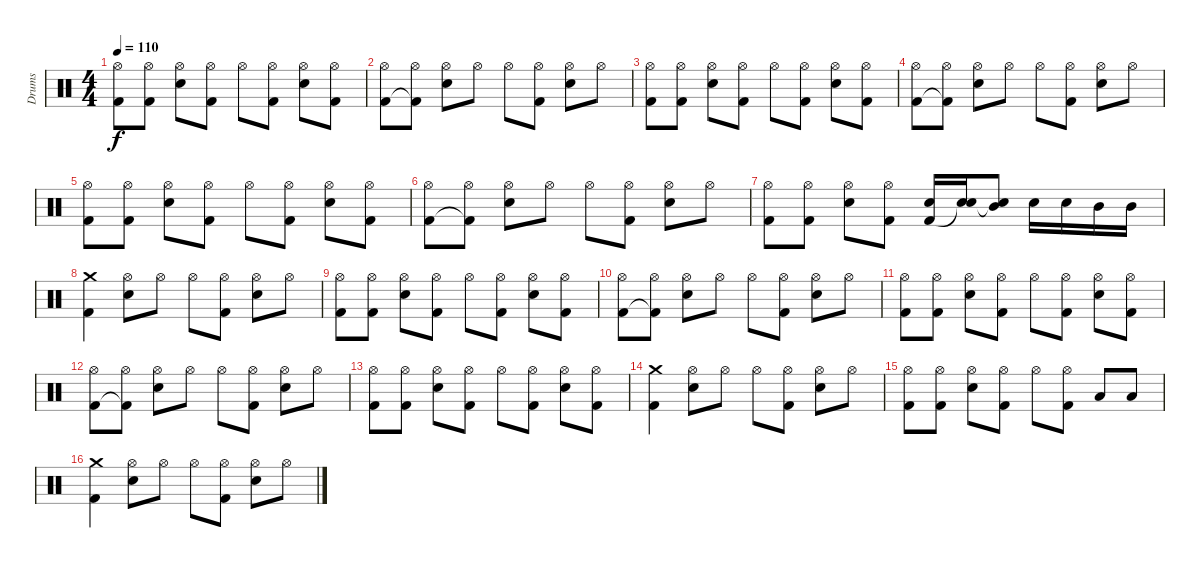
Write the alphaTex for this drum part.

\track ("Drums" "Drums") {instrument percussion}
\staff {score}
\articulation defaults
\ts (4 4)
\tempo 110
\clef neutral
\ks c
("Hi-Hat (open)" "Kick (hit) 2").8{dy f} ("Hi-Hat (open)" "Kick (hit) 2").8 ("Hi-Hat (open)" "Electric Snare (hit)").8 ("Hi-Hat (open)" "Kick (hit) 2").8 "Hi-Hat (open)".8 ("Hi-Hat (open)" "Kick (hit) 2").8 ("Hi-Hat (open)" "Electric Snare (hit)").8 ("Hi-Hat (open)" "Kick (hit) 2").8 |
("Hi-Hat (open)" "Kick (hit) 2").8 ("Hi-Hat (open)" "Kick (hit) 2"{t}).8 ("Hi-Hat (open)" "Electric Snare (hit)").8 "Hi-Hat (open)".8 "Hi-Hat (open)".8 ("Hi-Hat (open)" "Kick (hit) 2").8 ("Hi-Hat (open)" "Electric Snare (hit)").8 "Hi-Hat (open)".8 |
("Hi-Hat (open)" "Kick (hit) 2").8 ("Hi-Hat (open)" "Kick (hit) 2").8 ("Hi-Hat (open)" "Electric Snare (hit)").8 ("Hi-Hat (open)" "Kick (hit) 2").8 "Hi-Hat (open)".8 ("Hi-Hat (open)" "Kick (hit) 2").8 ("Hi-Hat (open)" "Electric Snare (hit)").8 ("Hi-Hat (open)" "Kick (hit) 2").8 |
("Hi-Hat (open)" "Kick (hit) 2").8 ("Hi-Hat (open)" "Kick (hit) 2"{t}).8 ("Hi-Hat (open)" "Electric Snare (hit)").8 "Hi-Hat (open)".8 "Hi-Hat (open)".8 ("Hi-Hat (open)" "Kick (hit) 2").8 ("Hi-Hat (open)" "Electric Snare (hit)").8 "Hi-Hat (open)".8 |
("Hi-Hat (open)" "Kick (hit) 2").8 ("Hi-Hat (open)" "Kick (hit) 2").8 ("Hi-Hat (open)" "Electric Snare (hit)").8 ("Hi-Hat (open)" "Kick (hit) 2").8 "Hi-Hat (open)".8 ("Hi-Hat (open)" "Kick (hit) 2").8 ("Hi-Hat (open)" "Electric Snare (hit)").8 ("Hi-Hat (open)" "Kick (hit) 2").8 |
("Hi-Hat (open)" "Kick (hit) 2").8 ("Hi-Hat (open)" "Kick (hit) 2"{t}).8 ("Hi-Hat (open)" "Electric Snare (hit)").8 "Hi-Hat (open)".8 "Hi-Hat (open)".8 ("Hi-Hat (open)" "Kick (hit) 2").8 ("Hi-Hat (open)" "Electric Snare (hit)").8 "Hi-Hat (open)".8 |
("Hi-Hat (open)" "Kick (hit) 2").8 ("Hi-Hat (open)" "Kick (hit) 2").8 ("Hi-Hat (open)" "Electric Snare (hit)").8 ("Hi-Hat (open)" "Kick (hit) 2").8 ("Electric Snare (hit)" "Kick (hit) 2").16 ("Electric Snare (hit)" "Snare (hit)"{t}).16 ("Mid Tom (hit)" "Snare (hit)"{t}).8 "Electric Snare (hit)".16 "Electric Snare (hit)".16 "Mid Tom (hit)".16 "Mid Tom (hit)".16 |
("Crash medium (hit)" "Kick (hit) 2").4 ("Hi-Hat (open)" "Electric Snare (hit)").8 "Hi-Hat (open)".8 "Hi-Hat (open)".8 ("Hi-Hat (open)" "Kick (hit) 2").8 ("Hi-Hat (open)" "Electric Snare (hit)").8 "Hi-Hat (open)".8 |
("Hi-Hat (open)" "Kick (hit) 2").8 ("Hi-Hat (open)" "Kick (hit) 2").8 ("Hi-Hat (open)" "Electric Snare (hit)").8 ("Hi-Hat (open)" "Kick (hit) 2").8 "Hi-Hat (open)".8 ("Hi-Hat (open)" "Kick (hit) 2").8 ("Hi-Hat (open)" "Electric Snare (hit)").8 ("Hi-Hat (open)" "Kick (hit) 2").8 |
("Hi-Hat (open)" "Kick (hit) 2").8 ("Hi-Hat (open)" "Kick (hit) 2"{t}).8 ("Hi-Hat (open)" "Electric Snare (hit)").8 "Hi-Hat (open)".8 "Hi-Hat (open)".8 ("Hi-Hat (open)" "Kick (hit) 2").8 ("Hi-Hat (open)" "Electric Snare (hit)").8 "Hi-Hat (open)".8 |
("Hi-Hat (open)" "Kick (hit) 2").8 ("Hi-Hat (open)" "Kick (hit) 2").8 ("Hi-Hat (open)" "Electric Snare (hit)").8 ("Hi-Hat (open)" "Kick (hit) 2").8 "Hi-Hat (open)".8 ("Hi-Hat (open)" "Kick (hit) 2").8 ("Hi-Hat (open)" "Electric Snare (hit)").8 ("Hi-Hat (open)" "Kick (hit) 2").8 |
("Hi-Hat (open)" "Kick (hit) 2").8 ("Hi-Hat (open)" "Kick (hit) 2"{t}).8 ("Hi-Hat (open)" "Electric Snare (hit)").8 "Hi-Hat (open)".8 "Hi-Hat (open)".8 ("Hi-Hat (open)" "Kick (hit) 2").8 ("Hi-Hat (open)" "Electric Snare (hit)").8 "Hi-Hat (open)".8 |
("Hi-Hat (open)" "Kick (hit) 2").8 ("Hi-Hat (open)" "Kick (hit) 2").8 ("Hi-Hat (open)" "Electric Snare (hit)").8 ("Hi-Hat (open)" "Kick (hit) 2").8 "Hi-Hat (open)".8 ("Hi-Hat (open)" "Kick (hit) 2").8 ("Hi-Hat (open)" "Electric Snare (hit)").8 ("Hi-Hat (open)" "Kick (hit) 2").8 |
("Crash medium (hit)" "Kick (hit) 2").4 ("Hi-Hat (open)" "Electric Snare (hit)").8 "Hi-Hat (open)".8 "Hi-Hat (open)".8 ("Hi-Hat (open)" "Kick (hit) 2").8 ("Hi-Hat (open)" "Electric Snare (hit)").8 "Hi-Hat (open)".8 |
("Hi-Hat (open)" "Kick (hit) 2").8 ("Hi-Hat (open)" "Kick (hit) 2").8 ("Hi-Hat (open)" "Electric Snare (hit)").8 ("Hi-Hat (open)" "Kick (hit) 2").8 "Hi-Hat (open)".8 ("Hi-Hat (open)" "Kick (hit) 2").8 "Low Tom (hit)".8 "Low Floor Tom (hit)".8 |
("Crash medium (hit)" "Kick (hit) 2").4 ("Hi-Hat (open)" "Electric Snare (hit)").8 "Hi-Hat (open)".8 "Hi-Hat (open)".8 ("Hi-Hat (open)" "Kick (hit) 2").8 ("Hi-Hat (open)" "Electric Snare (hit)").8 "Hi-Hat (open)".8
